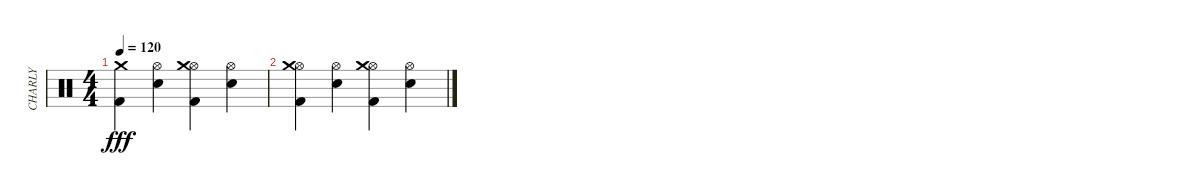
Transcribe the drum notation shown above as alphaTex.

\track ("CHARLY" "CHARLY") {instrument percussion}
\staff {score}
\articulation defaults
\ts (4 4)
\tempo 120
\clef neutral
\ks c
("Kick (hit) 2" "Crash medium (hit)").4{dy fff} ("Hi-Hat (open)" "Snare (hit) 2").4 ("Hi-Hat (open)" "Kick (hit) 2" "Crash medium (hit)").4 ("Hi-Hat (open)" "Snare (hit) 2").4 |
("Hi-Hat (open)" "Kick (hit) 2" "Crash medium (hit)").4 ("Hi-Hat (open)" "Snare (hit) 2").4 ("Hi-Hat (open)" "Kick (hit) 2" "Crash medium (hit)").4 ("Hi-Hat (open)" "Snare (hit) 2").4
